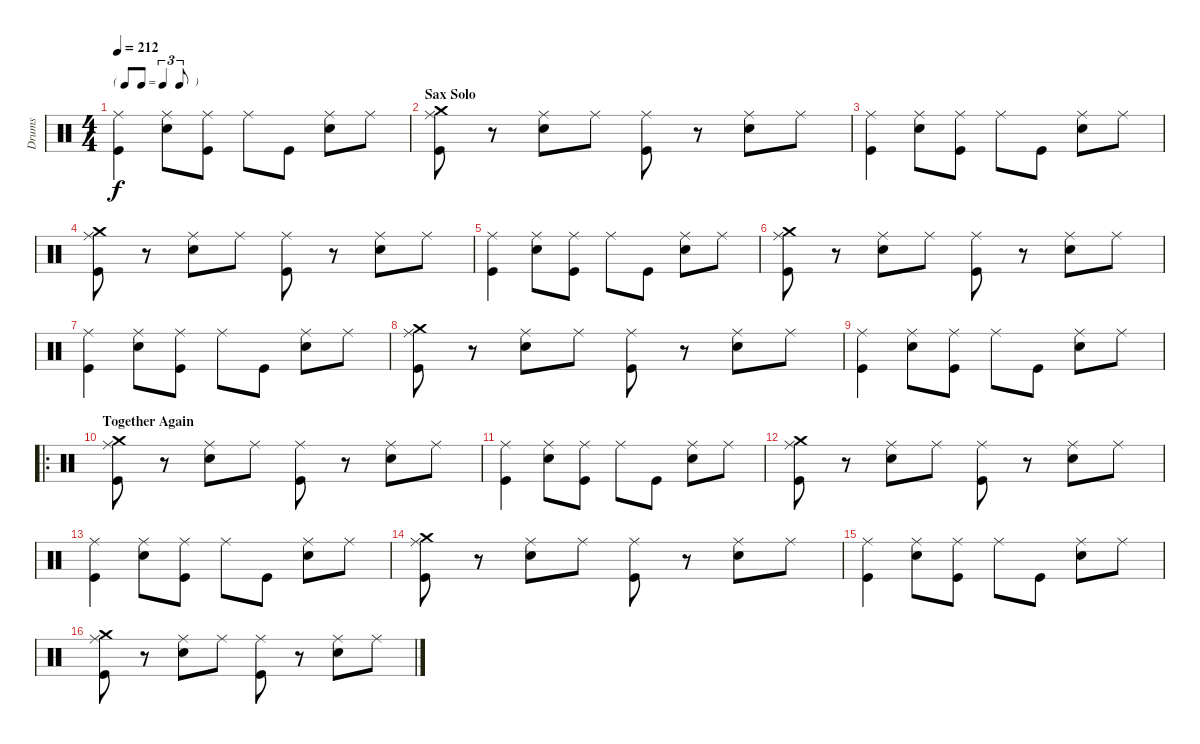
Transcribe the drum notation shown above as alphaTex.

\track ("Drums" "Drums") {instrument percussion}
\staff {score}
\articulation defaults
\ts (4 4)
\tf triplet8th
\tempo 212
\clef neutral
\ks c
("Ride (middle)" "Kick (hit)").4{dy f} ("Ride (middle)" "Electric Snare (hit)").8 ("Ride (middle)" "Kick (hit)").8 "Ride (middle)".8 "Kick (hit)".8 ("Ride (middle)" "Electric Snare (hit)").8 "Ride (middle)".8 |
\section ("" "Sax Solo")
("Crash medium (hit)" "Ride (middle)" "Kick (hit)").8 r.8 ("Ride (middle)" "Electric Snare (hit)").8 "Ride (middle)".8 ("Ride (middle)" "Kick (hit)").8 r.8 ("Ride (middle)" "Electric Snare (hit)").8 "Ride (middle)".8 |
("Ride (middle)" "Kick (hit)").4 ("Ride (middle)" "Electric Snare (hit)").8 ("Ride (middle)" "Kick (hit)").8 "Ride (middle)".8 "Kick (hit)".8 ("Ride (middle)" "Electric Snare (hit)").8 "Ride (middle)".8 |
("Crash medium (hit)" "Ride (middle)" "Kick (hit)").8 r.8 ("Ride (middle)" "Electric Snare (hit)").8 "Ride (middle)".8 ("Ride (middle)" "Kick (hit)").8 r.8 ("Ride (middle)" "Electric Snare (hit)").8 "Ride (middle)".8 |
("Ride (middle)" "Kick (hit)").4 ("Ride (middle)" "Electric Snare (hit)").8 ("Ride (middle)" "Kick (hit)").8 "Ride (middle)".8 "Kick (hit)".8 ("Ride (middle)" "Electric Snare (hit)").8 "Ride (middle)".8 |
("Crash medium (hit)" "Ride (middle)" "Kick (hit)").8 r.8 ("Ride (middle)" "Electric Snare (hit)").8 "Ride (middle)".8 ("Ride (middle)" "Kick (hit)").8 r.8 ("Ride (middle)" "Electric Snare (hit)").8 "Ride (middle)".8 |
("Ride (middle)" "Kick (hit)").4 ("Ride (middle)" "Electric Snare (hit)").8 ("Ride (middle)" "Kick (hit)").8 "Ride (middle)".8 "Kick (hit)".8 ("Ride (middle)" "Electric Snare (hit)").8 "Ride (middle)".8 |
("Crash medium (hit)" "Ride (middle)" "Kick (hit)").8 r.8 ("Ride (middle)" "Electric Snare (hit)").8 "Ride (middle)".8 ("Ride (middle)" "Kick (hit)").8 r.8 ("Ride (middle)" "Electric Snare (hit)").8 "Ride (middle)".8 |
("Ride (middle)" "Kick (hit)").4 ("Ride (middle)" "Electric Snare (hit)").8 ("Ride (middle)" "Kick (hit)").8 "Ride (middle)".8 "Kick (hit)".8 ("Ride (middle)" "Electric Snare (hit)").8 "Ride (middle)".8 |
\ro
\section ("" "Together Again")
("Crash medium (hit)" "Ride (middle)" "Kick (hit)").8 r.8 ("Ride (middle)" "Electric Snare (hit)").8 "Ride (middle)".8 ("Ride (middle)" "Kick (hit)").8 r.8 ("Ride (middle)" "Electric Snare (hit)").8 "Ride (middle)".8 |
("Ride (middle)" "Kick (hit)").4 ("Ride (middle)" "Electric Snare (hit)").8 ("Ride (middle)" "Kick (hit)").8 "Ride (middle)".8 "Kick (hit)".8 ("Ride (middle)" "Electric Snare (hit)").8 "Ride (middle)".8 |
("Crash medium (hit)" "Ride (middle)" "Kick (hit)").8 r.8 ("Ride (middle)" "Electric Snare (hit)").8 "Ride (middle)".8 ("Ride (middle)" "Kick (hit)").8 r.8 ("Ride (middle)" "Electric Snare (hit)").8 "Ride (middle)".8 |
("Ride (middle)" "Kick (hit)").4 ("Ride (middle)" "Electric Snare (hit)").8 ("Ride (middle)" "Kick (hit)").8 "Ride (middle)".8 "Kick (hit)".8 ("Ride (middle)" "Electric Snare (hit)").8 "Ride (middle)".8 |
("Crash medium (hit)" "Ride (middle)" "Kick (hit)").8 r.8 ("Ride (middle)" "Electric Snare (hit)").8 "Ride (middle)".8 ("Ride (middle)" "Kick (hit)").8 r.8 ("Ride (middle)" "Electric Snare (hit)").8 "Ride (middle)".8 |
("Ride (middle)" "Kick (hit)").4 ("Ride (middle)" "Electric Snare (hit)").8 ("Ride (middle)" "Kick (hit)").8 "Ride (middle)".8 "Kick (hit)".8 ("Ride (middle)" "Electric Snare (hit)").8 "Ride (middle)".8 |
("Crash medium (hit)" "Ride (middle)" "Kick (hit)").8 r.8 ("Ride (middle)" "Electric Snare (hit)").8 "Ride (middle)".8 ("Ride (middle)" "Kick (hit)").8 r.8 ("Ride (middle)" "Electric Snare (hit)").8 "Ride (middle)".8
